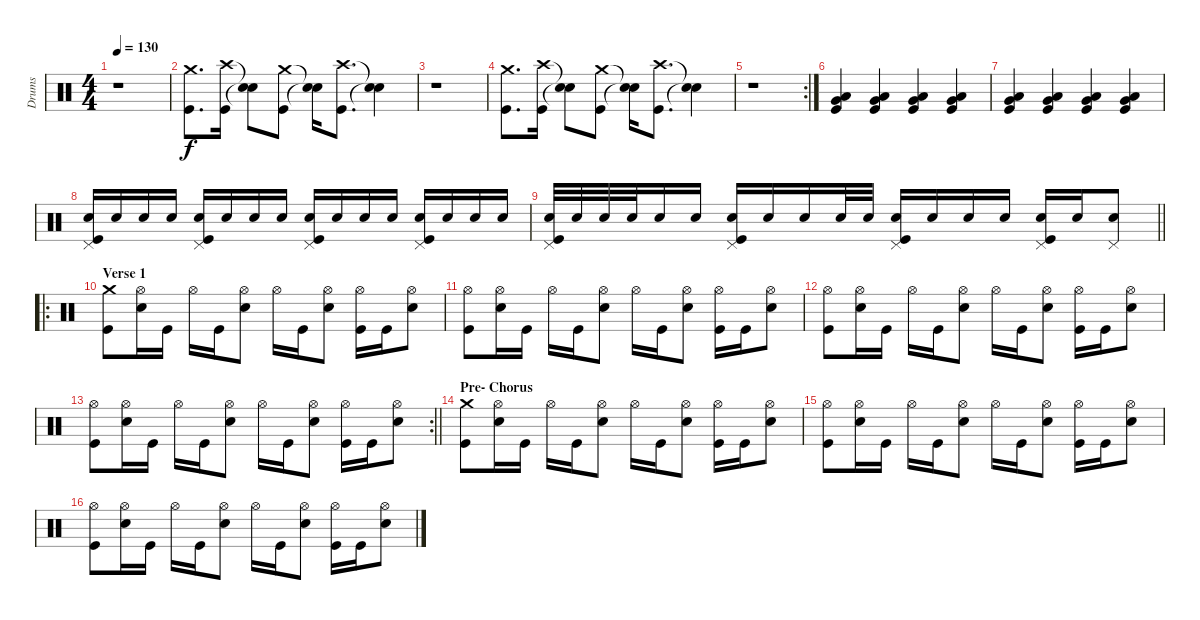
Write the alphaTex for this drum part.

\track ("Drums" "Drums") {instrument percussion}
\staff {score}
\articulation defaults
\ts (4 4)
\tempo 130
\clef neutral
\ks c
r.1{dy f} |
("Crash medium (hit)" "Kick (hit)").8{d} ("Crash high (hit)" "Kick (hit)").16 ("Snare (hit)"{t} "Snare (hit)"{t}).8 ("Crash medium (hit)" "Kick (hit)").8 ("Snare (hit)"{t} "Snare (hit)"{t}).16 ("Crash high (hit)" "Kick (hit)").8{d} ("Snare (hit)"{t} "Snare (hit)"{t}).4 |
r.1 |
("Crash medium (hit)" "Kick (hit)").8{d} ("Crash high (hit)" "Kick (hit)").16 ("Snare (hit)"{t} "Snare (hit)"{t}).8 ("Crash medium (hit)" "Kick (hit)").8 ("Snare (hit)"{t} "Snare (hit)"{t}).16 ("Crash high (hit)" "Kick (hit)").8{d} ("Snare (hit)"{t} "Snare (hit)"{t}).4 |
\rc 2
r.1 |
("Very Low Tom (hit)" "Low Floor Tom (hit)" "Kick (hit)").4 ("Very Low Tom (hit)" "Low Floor Tom (hit)" "Kick (hit)").4 ("Very Low Tom (hit)" "Low Floor Tom (hit)" "Kick (hit)").4 ("Very Low Tom (hit)" "Low Floor Tom (hit)" "Kick (hit)").4 |
("Very Low Tom (hit)" "Low Floor Tom (hit)" "Kick (hit)").4 ("Very Low Tom (hit)" "Low Floor Tom (hit)" "Kick (hit)").4 ("Very Low Tom (hit)" "Low Floor Tom (hit)" "Kick (hit)").4 ("Very Low Tom (hit)" "Low Floor Tom (hit)" "Kick (hit)").4 |
("Snare (hit) 2" "Pedal Hi-Hat (hit)" "Kick (hit)").16 "Snare (hit) 2".16 "Snare (hit) 2".16 "Snare (hit) 2".16 ("Snare (hit) 2" "Pedal Hi-Hat (hit)" "Kick (hit)").16 "Snare (hit) 2".16 "Snare (hit) 2".16 "Snare (hit) 2".16 ("Snare (hit) 2" "Pedal Hi-Hat (hit)" "Kick (hit)").16 "Snare (hit) 2".16 "Snare (hit) 2".16 "Snare (hit) 2".16 ("Snare (hit) 2" "Pedal Hi-Hat (hit)" "Kick (hit)").16 "Snare (hit) 2".16 "Snare (hit) 2".16 "Snare (hit) 2".16 |
\barLineRight lightlight
("Snare (hit) 2" "Pedal Hi-Hat (hit)" "Kick (hit)").32 "Snare (hit) 2".32 "Snare (hit) 2".32 "Snare (hit) 2".32 "Snare (hit) 2".16 "Snare (hit) 2".16 ("Snare (hit) 2" "Pedal Hi-Hat (hit)" "Kick (hit)").16 "Snare (hit) 2".16 "Snare (hit) 2".16 "Snare (hit) 2".32 "Snare (hit) 2".32 ("Snare (hit) 2" "Pedal Hi-Hat (hit)" "Kick (hit)").16 "Snare (hit) 2".16 "Snare (hit) 2".16 "Snare (hit) 2".16 ("Snare (hit) 2" "Pedal Hi-Hat (hit)" "Kick (hit)").16 "Snare (hit) 2".16 ("Snare (hit) 2" "Pedal Hi-Hat (hit)").8 |
\ro
\section ("" "Verse 1")
("Crash medium (hit)" "Kick (hit)").8 ("Hi-Hat (open)" "Snare (hit) 2").16 "Kick (hit)".16 "Hi-Hat (open)".16 "Kick (hit)".16 ("Hi-Hat (open)" "Snare (hit) 2").8 "Hi-Hat (open)".16 "Kick (hit)".16 ("Hi-Hat (open)" "Snare (hit) 2").8 ("Hi-Hat (open)" "Kick (hit)").16 "Kick (hit)".16 ("Hi-Hat (open)" "Snare (hit) 2").8 |
("Hi-Hat (open)" "Kick (hit)").8 ("Hi-Hat (open)" "Snare (hit) 2").16 "Kick (hit)".16 "Hi-Hat (open)".16 "Kick (hit)".16 ("Hi-Hat (open)" "Snare (hit) 2").8 "Hi-Hat (open)".16 "Kick (hit)".16 ("Hi-Hat (open)" "Snare (hit) 2").8 ("Hi-Hat (open)" "Kick (hit)").16 "Kick (hit)".16 ("Hi-Hat (open)" "Snare (hit) 2").8 |
("Hi-Hat (open)" "Kick (hit)").8 ("Hi-Hat (open)" "Snare (hit) 2").16 "Kick (hit)".16 "Hi-Hat (open)".16 "Kick (hit)".16 ("Hi-Hat (open)" "Snare (hit) 2").8 "Hi-Hat (open)".16 "Kick (hit)".16 ("Hi-Hat (open)" "Snare (hit) 2").8 ("Hi-Hat (open)" "Kick (hit)").16 "Kick (hit)".16 ("Hi-Hat (open)" "Snare (hit) 2").8 |
\rc 2
\barLineRight lightlight
("Hi-Hat (open)" "Kick (hit)").8 ("Hi-Hat (open)" "Snare (hit) 2").16 "Kick (hit)".16 "Hi-Hat (open)".16 "Kick (hit)".16 ("Hi-Hat (open)" "Snare (hit) 2").8 "Hi-Hat (open)".16 "Kick (hit)".16 ("Hi-Hat (open)" "Snare (hit) 2").8 ("Hi-Hat (open)" "Kick (hit)").16 "Kick (hit)".16 ("Hi-Hat (open)" "Snare (hit) 2").8 |
\section ("" "Pre- Chorus")
("Crash medium (hit)" "Kick (hit)").8 ("Hi-Hat (open)" "Snare (hit) 2").16 "Kick (hit)".16 "Hi-Hat (open)".16 "Kick (hit)".16 ("Hi-Hat (open)" "Snare (hit) 2").8 "Hi-Hat (open)".16 "Kick (hit)".16 ("Hi-Hat (open)" "Snare (hit) 2").8 ("Hi-Hat (open)" "Kick (hit)").16 "Kick (hit)".16 ("Hi-Hat (open)" "Snare (hit) 2").8 |
("Hi-Hat (open)" "Kick (hit)").8 ("Hi-Hat (open)" "Snare (hit) 2").16 "Kick (hit)".16 "Hi-Hat (open)".16 "Kick (hit)".16 ("Hi-Hat (open)" "Snare (hit) 2").8 "Hi-Hat (open)".16 "Kick (hit)".16 ("Hi-Hat (open)" "Snare (hit) 2").8 ("Hi-Hat (open)" "Kick (hit)").16 "Kick (hit)".16 ("Hi-Hat (open)" "Snare (hit) 2").8 |
("Hi-Hat (open)" "Kick (hit)").8 ("Hi-Hat (open)" "Snare (hit) 2").16 "Kick (hit)".16 "Hi-Hat (open)".16 "Kick (hit)".16 ("Hi-Hat (open)" "Snare (hit) 2").8 "Hi-Hat (open)".16 "Kick (hit)".16 ("Hi-Hat (open)" "Snare (hit) 2").8 ("Hi-Hat (open)" "Kick (hit)").16 "Kick (hit)".16 ("Hi-Hat (open)" "Snare (hit) 2").8
